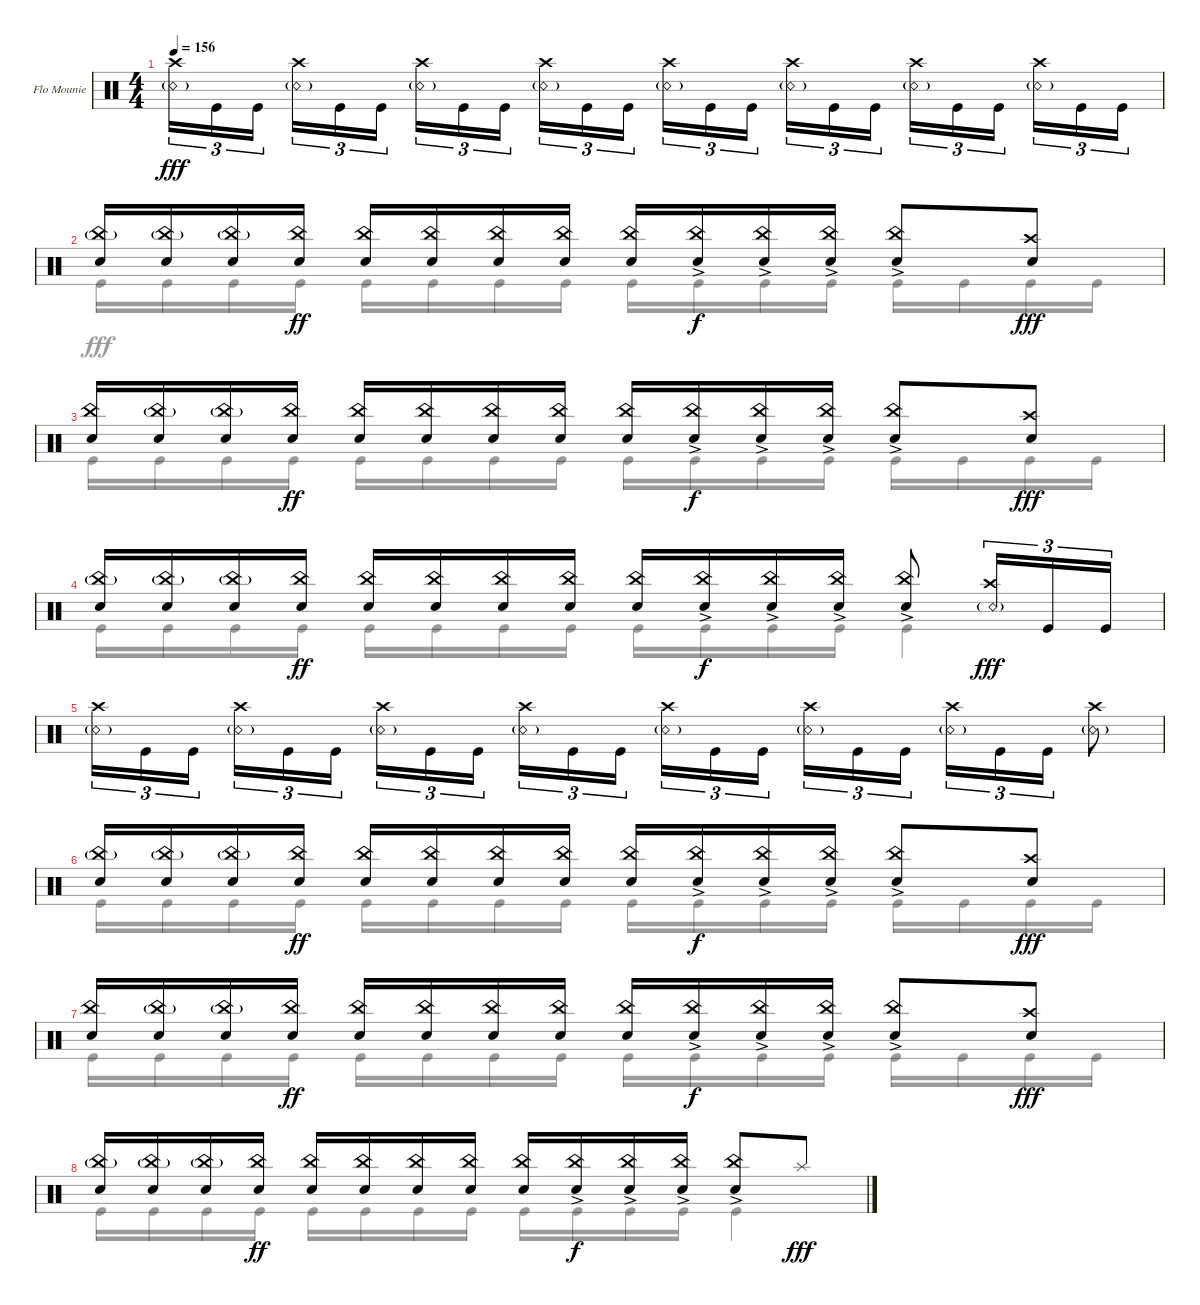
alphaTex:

\bracketExtendMode groupsimilarinstruments
\firstSystemTrackNameOrientation horizontal
\otherSystemsTrackNameOrientation horizontal
\track ("Flo Mounier" "Flo Mounie") {instrument percussion}
\staff {score}
\articulation defaults
\voice
\ts (4 4)
\tempo 156
\clef neutral
\ks c
("Snare (rim shot)"{g} "Crash high (hit)").16{tu (3 2) dy fff} "Kick (hit)".16{tu (3 2)} "Kick (hit)".16{tu (3 2)} ("Snare (rim shot)"{g} "Crash high (hit)").16{tu (3 2)} "Kick (hit)".16{tu (3 2)} "Kick (hit)".16{tu (3 2)} ("Snare (rim shot)"{g} "Crash high (hit)").16{tu (3 2)} "Kick (hit)".16{tu (3 2)} "Kick (hit)".16{tu (3 2)} ("Snare (rim shot)"{g} "Crash high (hit)").16{tu (3 2)} "Kick (hit)".16{tu (3 2)} "Kick (hit)".16{tu (3 2)} ("Snare (rim shot)"{g} "Crash high (hit)").16{tu (3 2)} "Kick (hit)".16{tu (3 2)} "Kick (hit)".16{tu (3 2)} ("Snare (rim shot)"{g} "Crash high (hit)").16{tu (3 2)} "Kick (hit)".16{tu (3 2)} "Kick (hit)".16{tu (3 2)} ("Snare (rim shot)"{g} "Crash high (hit)").16{tu (3 2)} "Kick (hit)".16{tu (3 2)} "Kick (hit)".16{tu (3 2)} ("Snare (rim shot)"{g} "Crash high (hit)").16{tu (3 2)} "Kick (hit)".16{tu (3 2)} "Kick (hit)".16{tu (3 2)} |
("Snare (hit) 2" "China (hit)"{g}).16 ("Snare (hit) 2" "China (hit)"{g}).16 ("Snare (hit) 2" "China (hit)"{g}).16 ("Snare (hit) 2" "China (hit)").16{dy ff} ("Snare (hit) 2" "China (hit)").16 ("Snare (hit) 2" "China (hit)").16 ("Snare (hit) 2" "China (hit)").16 ("Snare (hit) 2" "China (hit)").16 ("Snare (hit) 2" "China (hit)").16 ("Snare (hit) 2" "China (hit)"{ac}).16{dy f} ("Snare (hit) 2" "China (hit)"{ac}).16 ("Snare (hit) 2" "China (hit)"{ac}).16 ("Snare (hit) 2" "China (hit)"{ac}).8 ("Snare (hit) 2" "Crash high (hit)").8{dy fff} |
("Snare (hit) 2" "China (hit)").16 ("Snare (hit) 2" "China (hit)"{g}).16 ("Snare (hit) 2" "China (hit)"{g}).16 ("Snare (hit) 2" "China (hit)").16{dy ff} ("Snare (hit) 2" "China (hit)").16 ("Snare (hit) 2" "China (hit)").16 ("Snare (hit) 2" "China (hit)").16 ("Snare (hit) 2" "China (hit)").16 ("Snare (hit) 2" "China (hit)").16 ("Snare (hit) 2" "China (hit)"{ac}).16{dy f} ("Snare (hit) 2" "China (hit)"{ac}).16 ("Snare (hit) 2" "China (hit)"{ac}).16 ("Snare (hit) 2" "China (hit)"{ac}).8 ("Snare (hit) 2" "Crash high (hit)").8{dy fff} |
("Snare (hit) 2" "China (hit)"{g}).16 ("Snare (hit) 2" "China (hit)"{g}).16 ("Snare (hit) 2" "China (hit)"{g}).16 ("Snare (hit) 2" "China (hit)").16{dy ff} ("Snare (hit) 2" "China (hit)").16 ("Snare (hit) 2" "China (hit)").16 ("Snare (hit) 2" "China (hit)").16 ("Snare (hit) 2" "China (hit)").16 ("Snare (hit) 2" "China (hit)").16 ("Snare (hit) 2" "China (hit)"{ac}).16{dy f} ("Snare (hit) 2" "China (hit)"{ac}).16 ("Snare (hit) 2" "China (hit)"{ac}).16 ("Snare (hit) 2" "China (hit)"{ac}).8 ("Snare (rim shot)"{g} "Crash high (hit)").16{tu (3 2) dy fff} "Kick (hit)".16{tu (3 2)} "Kick (hit)".16{tu (3 2)} |
("Snare (rim shot)"{g} "Crash high (hit)").16{tu (3 2)} "Kick (hit)".16{tu (3 2)} "Kick (hit)".16{tu (3 2)} ("Snare (rim shot)"{g} "Crash high (hit)").16{tu (3 2)} "Kick (hit)".16{tu (3 2)} "Kick (hit)".16{tu (3 2)} ("Snare (rim shot)"{g} "Crash high (hit)").16{tu (3 2)} "Kick (hit)".16{tu (3 2)} "Kick (hit)".16{tu (3 2)} ("Snare (rim shot)"{g} "Crash high (hit)").16{tu (3 2)} "Kick (hit)".16{tu (3 2)} "Kick (hit)".16{tu (3 2)} ("Snare (rim shot)"{g} "Crash high (hit)").16{tu (3 2)} "Kick (hit)".16{tu (3 2)} "Kick (hit)".16{tu (3 2)} ("Snare (rim shot)"{g} "Crash high (hit)").16{tu (3 2)} "Kick (hit)".16{tu (3 2)} "Kick (hit)".16{tu (3 2)} ("Snare (rim shot)"{g} "Crash high (hit)").16{tu (3 2)} "Kick (hit)".16{tu (3 2)} "Kick (hit)".16{tu (3 2)} ("Snare (rim shot)"{g} "Crash high (hit)").8 |
("Snare (hit) 2" "China (hit)"{g}).16 ("Snare (hit) 2" "China (hit)"{g}).16 ("Snare (hit) 2" "China (hit)"{g}).16 ("Snare (hit) 2" "China (hit)").16{dy ff} ("Snare (hit) 2" "China (hit)").16 ("Snare (hit) 2" "China (hit)").16 ("Snare (hit) 2" "China (hit)").16 ("Snare (hit) 2" "China (hit)").16 ("Snare (hit) 2" "China (hit)").16 ("Snare (hit) 2" "China (hit)"{ac}).16{dy f} ("Snare (hit) 2" "China (hit)"{ac}).16 ("Snare (hit) 2" "China (hit)"{ac}).16 ("Snare (hit) 2" "China (hit)"{ac}).8 ("Snare (hit) 2" "Crash high (hit)").8{dy fff} |
("Snare (hit) 2" "China (hit)").16 ("Snare (hit) 2" "China (hit)"{g}).16 ("Snare (hit) 2" "China (hit)"{g}).16 ("Snare (hit) 2" "China (hit)").16{dy ff} ("Snare (hit) 2" "China (hit)").16 ("Snare (hit) 2" "China (hit)").16 ("Snare (hit) 2" "China (hit)").16 ("Snare (hit) 2" "China (hit)").16 ("Snare (hit) 2" "China (hit)").16 ("Snare (hit) 2" "China (hit)"{ac}).16{dy f} ("Snare (hit) 2" "China (hit)"{ac}).16 ("Snare (hit) 2" "China (hit)"{ac}).16 ("Snare (hit) 2" "China (hit)"{ac}).8 ("Snare (hit) 2" "Crash high (hit)").8{dy fff} |
("Snare (hit) 2" "China (hit)"{g}).16 ("Snare (hit) 2" "China (hit)"{g}).16 ("Snare (hit) 2" "China (hit)"{g}).16 ("Snare (hit) 2" "China (hit)").16{dy ff} ("Snare (hit) 2" "China (hit)").16 ("Snare (hit) 2" "China (hit)").16 ("Snare (hit) 2" "China (hit)").16 ("Snare (hit) 2" "China (hit)").16 ("Snare (hit) 2" "China (hit)").16 ("Snare (hit) 2" "China (hit)"{ac}).16{dy f} ("Snare (hit) 2" "China (hit)"{ac}).16 ("Snare (hit) 2" "China (hit)"{ac}).16 ("Snare (hit) 2" "China (hit)"{ac}).8 "Splash (hit)".8{dy fff}
\voice
\clef neutral
\ottava regular
\simile none
\ks c
|
"Kick (hit)".16 "Kick (hit)".16 "Kick (hit)".16 "Kick (hit)".16 "Kick (hit)".16 "Kick (hit)".16 "Kick (hit)".16 "Kick (hit)".16 "Kick (hit)".16 "Kick (hit)".16 "Kick (hit)".16 "Kick (hit)".16 "Kick (hit)".16 "Kick (hit)".16 "Kick (hit)".16 "Kick (hit)".16 |
"Kick (hit)".16 "Kick (hit)".16 "Kick (hit)".16 "Kick (hit)".16 "Kick (hit)".16 "Kick (hit)".16 "Kick (hit)".16 "Kick (hit)".16 "Kick (hit)".16 "Kick (hit)".16 "Kick (hit)".16 "Kick (hit)".16 "Kick (hit)".16 "Kick (hit)".16 "Kick (hit)".16 "Kick (hit)".16 |
"Kick (hit)".16 "Kick (hit)".16 "Kick (hit)".16 "Kick (hit)".16 "Kick (hit)".16 "Kick (hit)".16 "Kick (hit)".16 "Kick (hit)".16 "Kick (hit)".16 "Kick (hit)".16 "Kick (hit)".16 "Kick (hit)".16 "Kick (hit)".4 |
|
"Kick (hit)".16 "Kick (hit)".16 "Kick (hit)".16 "Kick (hit)".16 "Kick (hit)".16 "Kick (hit)".16 "Kick (hit)".16 "Kick (hit)".16 "Kick (hit)".16 "Kick (hit)".16 "Kick (hit)".16 "Kick (hit)".16 "Kick (hit)".16 "Kick (hit)".16 "Kick (hit)".16 "Kick (hit)".16 |
"Kick (hit)".16 "Kick (hit)".16 "Kick (hit)".16 "Kick (hit)".16 "Kick (hit)".16 "Kick (hit)".16 "Kick (hit)".16 "Kick (hit)".16 "Kick (hit)".16 "Kick (hit)".16 "Kick (hit)".16 "Kick (hit)".16 "Kick (hit)".16 "Kick (hit)".16 "Kick (hit)".16 "Kick (hit)".16 |
"Kick (hit)".16 "Kick (hit)".16 "Kick (hit)".16 "Kick (hit)".16 "Kick (hit)".16 "Kick (hit)".16 "Kick (hit)".16 "Kick (hit)".16 "Kick (hit)".16 "Kick (hit)".16 "Kick (hit)".16 "Kick (hit)".16 "Kick (hit)".4
